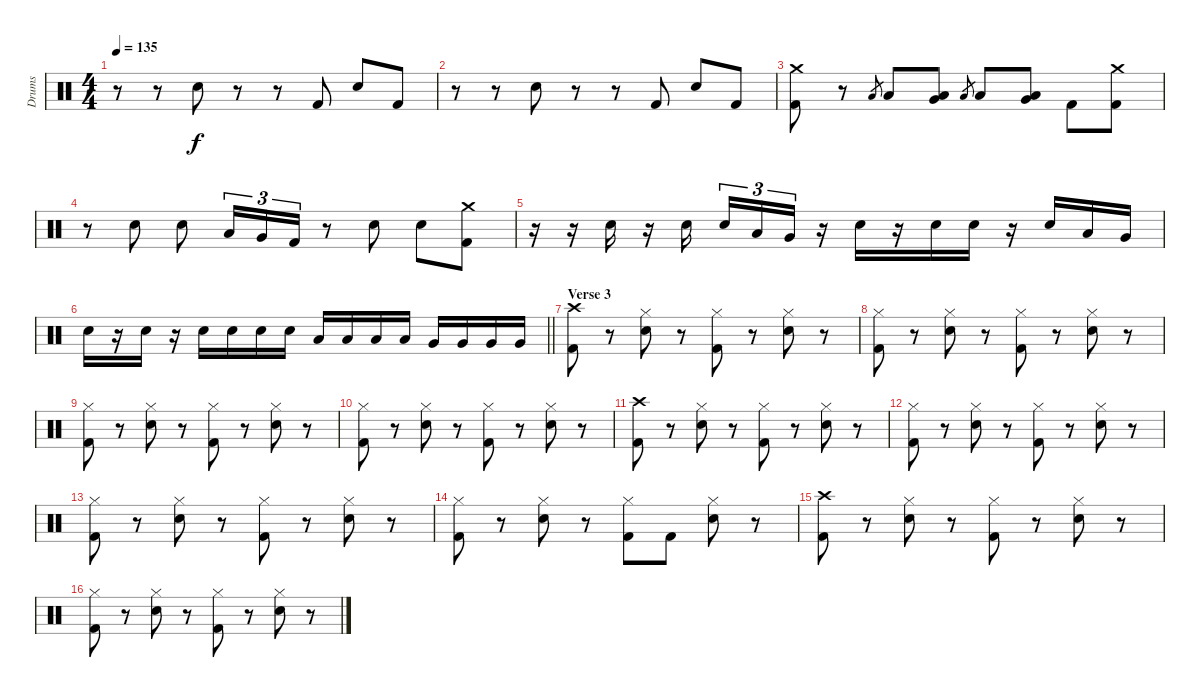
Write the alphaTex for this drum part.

\track ("Drums" "Drums") {instrument percussion}
\staff {score}
\articulation defaults
\ts (4 4)
\tempo 135
\clef neutral
\ks c
r.8{dy f} r.8 "Snare (hit) 2".8 r.8 r.8 "Kick (hit) 2".8 "Snare (hit) 2".8 "Kick (hit) 2".8 |
r.8 r.8 "Snare (hit) 2".8 r.8 r.8 "Kick (hit) 2".8 "Snare (hit) 2".8 "Kick (hit) 2".8 |
("Crash medium (hit)" "Kick (hit) 2").8 r.8 "Low Tom (hit)".8{gr} "Low Tom (hit)".8 ("Very Low Tom (hit)" "Low Floor Tom (hit)").8 "Low Tom (hit)".8{gr} "Low Tom (hit)".8 ("Very Low Tom (hit)" "Low Floor Tom (hit)").8 "Kick (hit) 2".8 ("Crash medium (hit)" "Kick (hit) 2").8 |
r.8 "Snare (hit) 2".8 "Snare (hit) 2".8 "Low Tom (hit)".16{tu (3 2)} "Very Low Tom (hit)".16{tu (3 2)} "Kick (hit) 2".16{tu (3 2)} r.8 "Snare (hit) 2".8 "Snare (hit) 2".8 ("Crash medium (hit)" "Kick (hit) 2").8 |
r.16 r.16 "Snare (hit) 2".16 r.16 "Snare (hit) 2".16{beam splitsecondary} "Snare (hit) 2".16{tu (3 2)} "Low Tom (hit)".16{tu (3 2)} "Very Low Tom (hit)".16{tu (3 2)} r.16 "Snare (hit) 2".16 r.16 "Snare (hit) 2".16 "Snare (hit) 2".16 r.16 "Snare (hit) 2".16 "Low Tom (hit)".16 "Very Low Tom (hit)".16 |
\barLineRight lightlight "Snare (hit) 2".16
r.16 "Snare (hit) 2".16 r.16 "Snare (hit) 2".16 "Snare (hit) 2".16 "Snare (hit) 2".16 "Snare (hit) 2".16 "Low Tom (hit)".16 "Low Tom (hit)".16 "Low Tom (hit)".16 "Low Tom (hit)".16 "Very Low Tom (hit)".16 "Very Low Tom (hit)".16 "Very Low Tom (hit)".16 "Very Low Tom (hit)".16 |
\section ("" "Verse 3")
("Crash high (hit)" "Kick (hit) 2").8 r.8 ("Hi-Hat (closed)" "Snare (hit) 2").8 r.8 ("Hi-Hat (closed)" "Kick (hit) 2").8 r.8 ("Hi-Hat (closed)" "Snare (hit) 2").8 r.8 |
("Hi-Hat (closed)" "Kick (hit) 2").8 r.8 ("Hi-Hat (closed)" "Snare (hit) 2").8 r.8 ("Hi-Hat (closed)" "Kick (hit) 2").8 r.8 ("Hi-Hat (closed)" "Snare (hit) 2").8 r.8 |
("Hi-Hat (closed)" "Kick (hit) 2").8 r.8 ("Hi-Hat (closed)" "Snare (hit) 2").8 r.8 ("Hi-Hat (closed)" "Kick (hit) 2").8 r.8 ("Hi-Hat (closed)" "Snare (hit) 2").8 r.8 |
("Hi-Hat (closed)" "Kick (hit) 2").8 r.8 ("Hi-Hat (closed)" "Snare (hit) 2").8 r.8 ("Hi-Hat (closed)" "Kick (hit) 2").8 r.8 ("Hi-Hat (closed)" "Snare (hit) 2").8 r.8 |
("Crash high (hit)" "Kick (hit) 2").8 r.8 ("Hi-Hat (closed)" "Snare (hit) 2").8 r.8 ("Hi-Hat (closed)" "Kick (hit) 2").8 r.8 ("Hi-Hat (closed)" "Snare (hit) 2").8 r.8 |
("Hi-Hat (closed)" "Kick (hit) 2").8 r.8 ("Hi-Hat (closed)" "Snare (hit) 2").8 r.8 ("Hi-Hat (closed)" "Kick (hit) 2").8 r.8 ("Hi-Hat (closed)" "Snare (hit) 2").8 r.8 |
("Hi-Hat (closed)" "Kick (hit) 2").8 r.8 ("Hi-Hat (closed)" "Snare (hit) 2").8 r.8 ("Hi-Hat (closed)" "Kick (hit) 2").8 r.8 ("Hi-Hat (closed)" "Snare (hit) 2").8 r.8 |
("Hi-Hat (closed)" "Kick (hit) 2").8 r.8 ("Hi-Hat (closed)" "Snare (hit) 2").8 r.8 ("Hi-Hat (closed)" "Kick (hit) 2").8 "Kick (hit) 2".8 ("Hi-Hat (closed)" "Snare (hit) 2").8 r.8 |
("Crash high (hit)" "Kick (hit) 2").8 r.8 ("Hi-Hat (closed)" "Snare (hit) 2").8 r.8 ("Hi-Hat (closed)" "Kick (hit) 2").8 r.8 ("Hi-Hat (closed)" "Snare (hit) 2").8 r.8 |
("Hi-Hat (closed)" "Kick (hit) 2").8 r.8 ("Hi-Hat (closed)" "Snare (hit) 2").8 r.8 ("Hi-Hat (closed)" "Kick (hit) 2").8 r.8 ("Hi-Hat (closed)" "Snare (hit) 2").8 r.8
